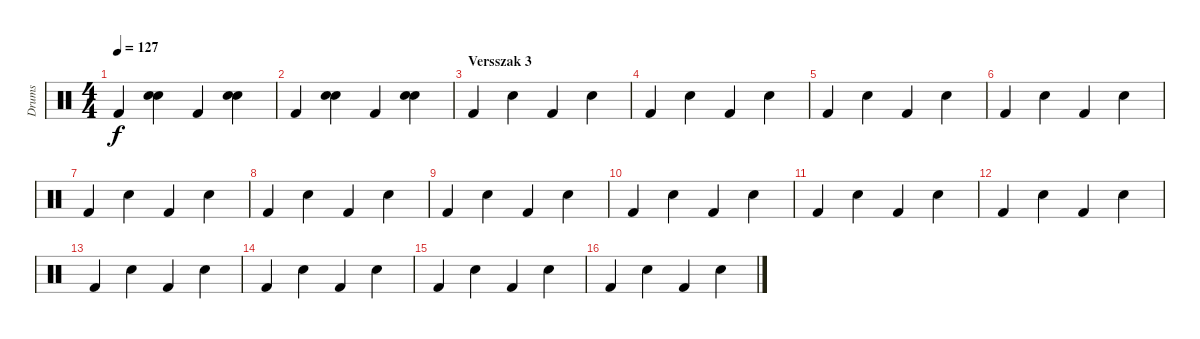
\track ("Drums" "Drums") {instrument percussion}
\staff {score}
\articulation defaults
\ts (4 4)
\tempo 127
\clef neutral
\ks c "Kick (hit) 2".4{dy f}
("Electric Snare (hit)" "Hand Clap (hit)").4 "Kick (hit) 2".4 ("Electric Snare (hit)" "Hand Clap (hit)").4 |
"Kick (hit) 2".4 ("Electric Snare (hit)" "Hand Clap (hit)").4 "Kick (hit) 2".4 ("Electric Snare (hit)" "Hand Clap (hit)").4 |
\section ("" "Versszak 3")
"Kick (hit) 2".4 "Electric Snare (hit)".4 "Kick (hit) 2".4 "Electric Snare (hit)".4 |
"Kick (hit) 2".4 "Electric Snare (hit)".4 "Kick (hit) 2".4 "Electric Snare (hit)".4 |
"Kick (hit) 2".4 "Electric Snare (hit)".4 "Kick (hit) 2".4 "Electric Snare (hit)".4 |
"Kick (hit) 2".4 "Electric Snare (hit)".4 "Kick (hit) 2".4 "Electric Snare (hit)".4 |
"Kick (hit) 2".4 "Electric Snare (hit)".4 "Kick (hit) 2".4 "Electric Snare (hit)".4 |
"Kick (hit) 2".4 "Electric Snare (hit)".4 "Kick (hit) 2".4 "Electric Snare (hit)".4 |
"Kick (hit) 2".4 "Electric Snare (hit)".4 "Kick (hit) 2".4 "Electric Snare (hit)".4 |
"Kick (hit) 2".4 "Electric Snare (hit)".4 "Kick (hit) 2".4 "Electric Snare (hit)".4 |
"Kick (hit) 2".4 "Electric Snare (hit)".4 "Kick (hit) 2".4 "Electric Snare (hit)".4 |
"Kick (hit) 2".4 "Electric Snare (hit)".4 "Kick (hit) 2".4 "Electric Snare (hit)".4 |
"Kick (hit) 2".4 "Electric Snare (hit)".4 "Kick (hit) 2".4 "Electric Snare (hit)".4 |
"Kick (hit) 2".4 "Electric Snare (hit)".4 "Kick (hit) 2".4 "Electric Snare (hit)".4 |
"Kick (hit) 2".4 "Electric Snare (hit)".4 "Kick (hit) 2".4 "Electric Snare (hit)".4 |
"Kick (hit) 2".4 "Electric Snare (hit)".4 "Kick (hit) 2".4 "Electric Snare (hit)".4
